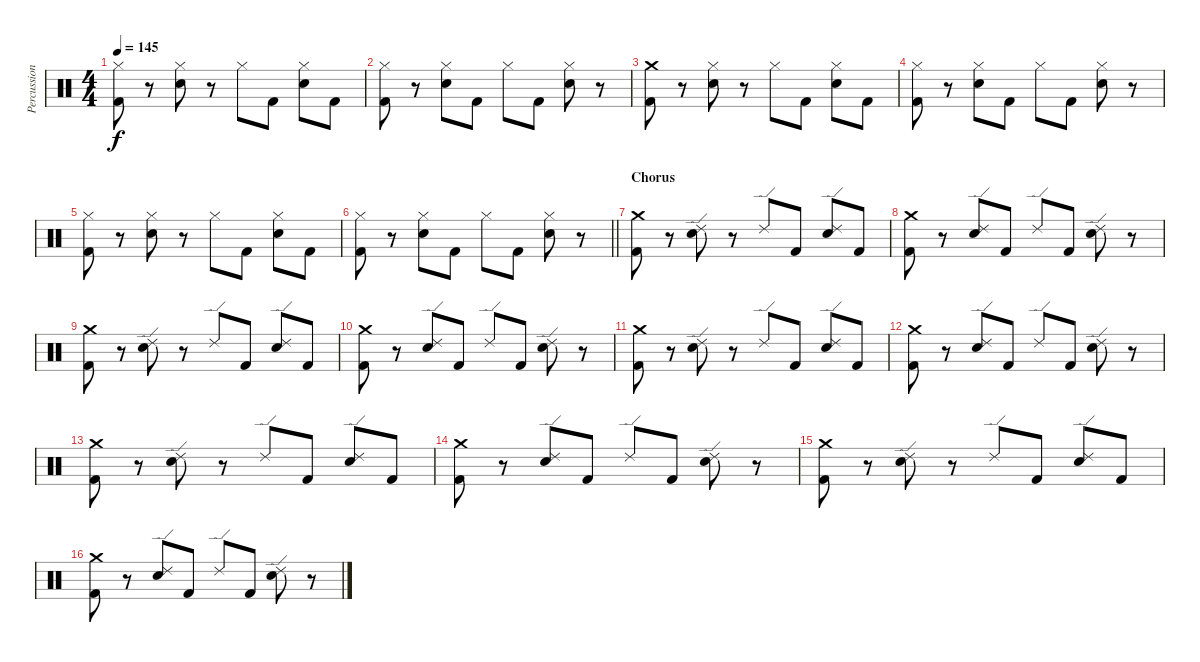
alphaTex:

\track ("Percussion" "Percussion") {instrument percussion}
\staff {score}
\articulation defaults
\ts (4 4)
\tempo 145
\clef neutral
\ks c
("Hi-Hat (closed)" "Kick (hit) 2").8{dy f} r.8 ("Hi-Hat (closed)" "Electric Snare (hit)").8 r.8 "Hi-Hat (closed)".8 "Kick (hit) 2".8 ("Hi-Hat (closed)" "Electric Snare (hit)").8 "Kick (hit) 2".8 |
("Hi-Hat (closed)" "Kick (hit) 2").8 r.8 ("Hi-Hat (closed)" "Electric Snare (hit)").8 "Kick (hit) 2".8 "Hi-Hat (closed)".8 "Kick (hit) 2".8 ("Hi-Hat (closed)" "Electric Snare (hit)").8 r.8 |
("Crash medium (hit)" "Kick (hit) 2").8 r.8 ("Hi-Hat (closed)" "Electric Snare (hit)").8 r.8 "Hi-Hat (closed)".8 "Kick (hit) 2".8 ("Hi-Hat (closed)" "Electric Snare (hit)").8 "Kick (hit) 2".8 |
("Hi-Hat (closed)" "Kick (hit) 2").8 r.8 ("Hi-Hat (closed)" "Electric Snare (hit)").8 "Kick (hit) 2".8 "Hi-Hat (closed)".8 "Kick (hit) 2".8 ("Hi-Hat (closed)" "Electric Snare (hit)").8 r.8 |
("Hi-Hat (closed)" "Kick (hit) 2").8 r.8 ("Hi-Hat (closed)" "Electric Snare (hit)").8 r.8 "Hi-Hat (closed)".8 "Kick (hit) 2".8 ("Hi-Hat (closed)" "Electric Snare (hit)").8 "Kick (hit) 2".8 |
\barLineRight lightlight
("Hi-Hat (closed)" "Kick (hit) 2").8 r.8 ("Hi-Hat (closed)" "Electric Snare (hit)").8 "Kick (hit) 2".8 "Hi-Hat (closed)".8 "Kick (hit) 2".8 ("Hi-Hat (closed)" "Electric Snare (hit)").8 r.8 |
\section ("" "Chorus")
("Crash medium (hit)" "Kick (hit) 2").8 r.8 ("Ride (edge) 2" "Electric Snare (hit)").8 r.8 "Ride (edge) 2".8 "Kick (hit) 2".8 ("Ride (edge) 2" "Electric Snare (hit)").8 "Kick (hit) 2".8 |
("Crash medium (hit)" "Kick (hit) 2").8 r.8 ("Ride (edge) 2" "Electric Snare (hit)").8 "Kick (hit) 2".8 "Ride (edge) 2".8 "Kick (hit) 2".8 ("Ride (edge) 2" "Electric Snare (hit)").8 r.8 |
("Crash medium (hit)" "Kick (hit) 2").8 r.8 ("Ride (edge) 2" "Electric Snare (hit)").8 r.8 "Ride (edge) 2".8 "Kick (hit) 2".8 ("Ride (edge) 2" "Electric Snare (hit)").8 "Kick (hit) 2".8 |
("Crash medium (hit)" "Kick (hit) 2").8 r.8 ("Ride (edge) 2" "Electric Snare (hit)").8 "Kick (hit) 2".8 "Ride (edge) 2".8 "Kick (hit) 2".8 ("Ride (edge) 2" "Electric Snare (hit)").8 r.8 |
("Crash medium (hit)" "Kick (hit) 2").8 r.8 ("Ride (edge) 2" "Electric Snare (hit)").8 r.8 "Ride (edge) 2".8 "Kick (hit) 2".8 ("Ride (edge) 2" "Electric Snare (hit)").8 "Kick (hit) 2".8 |
("Crash medium (hit)" "Kick (hit) 2").8 r.8 ("Ride (edge) 2" "Electric Snare (hit)").8 "Kick (hit) 2".8 "Ride (edge) 2".8 "Kick (hit) 2".8 ("Ride (edge) 2" "Electric Snare (hit)").8 r.8 |
("Crash medium (hit)" "Kick (hit) 2").8 r.8 ("Ride (edge) 2" "Electric Snare (hit)").8 r.8 "Ride (edge) 2".8 "Kick (hit) 2".8 ("Ride (edge) 2" "Electric Snare (hit)").8 "Kick (hit) 2".8 |
("Crash medium (hit)" "Kick (hit) 2").8 r.8 ("Ride (edge) 2" "Electric Snare (hit)").8 "Kick (hit) 2".8 "Ride (edge) 2".8 "Kick (hit) 2".8 ("Ride (edge) 2" "Electric Snare (hit)").8 r.8 |
("Crash medium (hit)" "Kick (hit) 2").8 r.8 ("Ride (edge) 2" "Electric Snare (hit)").8 r.8 "Ride (edge) 2".8 "Kick (hit) 2".8 ("Ride (edge) 2" "Electric Snare (hit)").8 "Kick (hit) 2".8 |
("Crash medium (hit)" "Kick (hit) 2").8 r.8 ("Ride (edge) 2" "Electric Snare (hit)").8 "Kick (hit) 2".8 "Ride (edge) 2".8 "Kick (hit) 2".8 ("Ride (edge) 2" "Electric Snare (hit)").8 r.8
